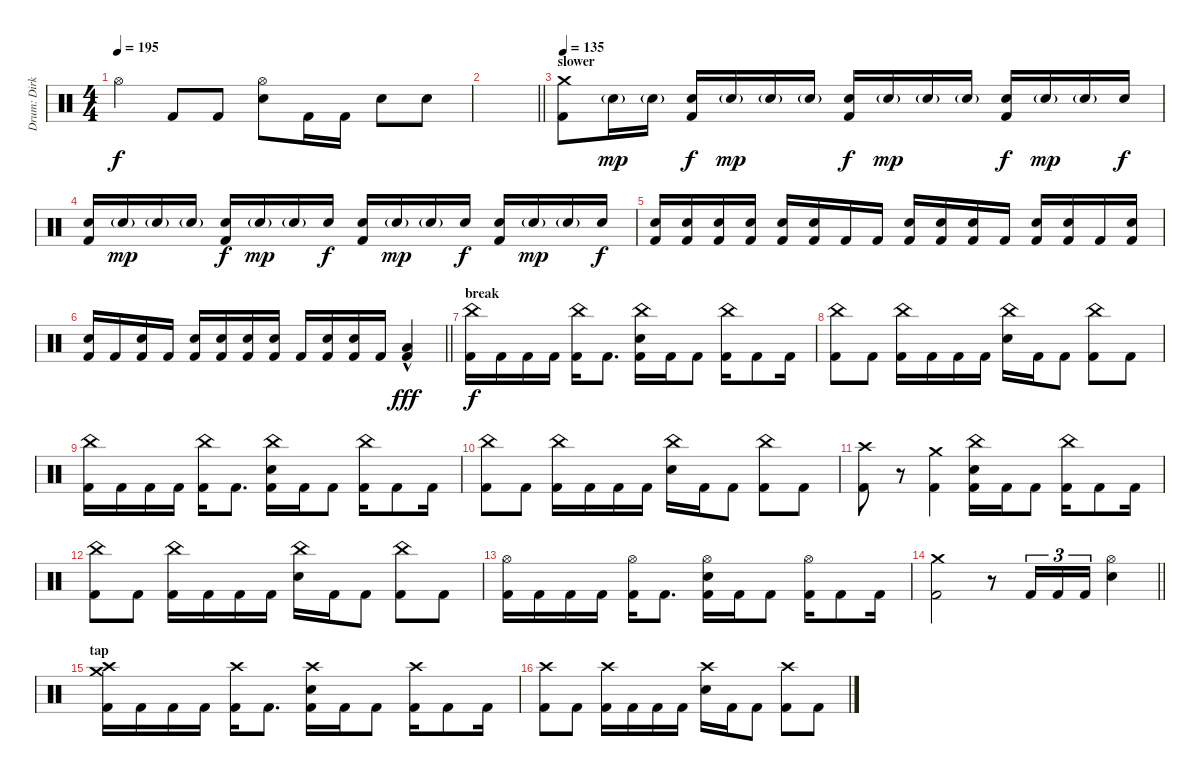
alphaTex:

\track ("Drum: Dirk" "Drum: Dirk") {instrument percussion}
\staff {score}
\articulation defaults
\ts (4 4)
\tempo 195
\clef neutral
\ks c "Hi-Hat (open)".4{dy f} "Kick (hit) 2".8 "Kick (hit) 2".8
("Hi-Hat (open)" "Electric Snare (hit)").8 "Kick (hit) 2".16 "Kick (hit) 2".16 "Electric Snare (hit)".8 "Electric Snare (hit)".8 |
\barLineRight lightlight
|
\section ("" "slower")
\tempo 135
("Crash medium (hit)" "Kick (hit) 2").8 "Electric Snare (hit)"{g}.16{dy mp} "Electric Snare (hit)"{g}.16 ("Electric Snare (hit)" "Kick (hit) 2").16{dy f} "Electric Snare (hit)"{g}.16{dy mp} "Electric Snare (hit)"{g}.16 "Electric Snare (hit)"{g}.16 ("Electric Snare (hit)" "Kick (hit) 2").16{dy f} "Electric Snare (hit)"{g}.16{dy mp} "Electric Snare (hit)"{g}.16 "Electric Snare (hit)"{g}.16 ("Electric Snare (hit)" "Kick (hit) 2").16{dy f} "Electric Snare (hit)"{g}.16{dy mp} "Electric Snare (hit)"{g}.16 "Electric Snare (hit)".16{dy f} |
("Electric Snare (hit)" "Kick (hit) 2").16 "Electric Snare (hit)"{g}.16{dy mp} "Electric Snare (hit)"{g}.16 "Electric Snare (hit)"{g}.16 ("Electric Snare (hit)" "Kick (hit) 2").16{dy f} "Electric Snare (hit)"{g}.16{dy mp} "Electric Snare (hit)"{g}.16 "Electric Snare (hit)".16{dy f} ("Electric Snare (hit)" "Kick (hit) 2").16 "Electric Snare (hit)"{g}.16{dy mp} "Electric Snare (hit)"{g}.16 "Electric Snare (hit)".16{dy f} ("Electric Snare (hit)" "Kick (hit) 2").16 "Electric Snare (hit)"{g}.16{dy mp} "Electric Snare (hit)"{g}.16 "Electric Snare (hit)".16{dy f} |
("Electric Snare (hit)" "Kick (hit) 2").16 ("Electric Snare (hit)" "Kick (hit) 2").16 ("Electric Snare (hit)" "Kick (hit) 2").16 ("Electric Snare (hit)" "Kick (hit) 2").16 ("Electric Snare (hit)" "Kick (hit) 2").16 ("Electric Snare (hit)" "Kick (hit) 2").16 "Kick (hit) 2".16 "Kick (hit) 2".16 ("Electric Snare (hit)" "Kick (hit) 2").16 ("Electric Snare (hit)" "Kick (hit) 2").16 ("Electric Snare (hit)" "Kick (hit) 2").16 "Kick (hit) 2".16 ("Electric Snare (hit)" "Kick (hit) 2").16 ("Electric Snare (hit)" "Kick (hit) 2").16 "Kick (hit) 2".16 ("Electric Snare (hit)" "Kick (hit) 2").16 |
\barLineRight lightlight
("Electric Snare (hit)" "Kick (hit) 2").16 "Kick (hit) 2".16 ("Electric Snare (hit)" "Kick (hit) 2").16 "Kick (hit) 2".16 ("Electric Snare (hit)" "Kick (hit) 2").16 ("Electric Snare (hit)" "Kick (hit) 2").16 ("Electric Snare (hit)" "Kick (hit) 2").16 ("Electric Snare (hit)" "Kick (hit) 2").16 "Kick (hit) 2".16 ("Electric Snare (hit)" "Kick (hit) 2").16 ("Electric Snare (hit)" "Kick (hit) 2").16 "Kick (hit) 2".16 ("Low Floor Tom (hit)"{hac} "Kick (hit) 2").4{dy fff} |
\section ("" "break")
("China (hit)" "Kick (hit) 2").16{dy f} "Kick (hit) 2".16 "Kick (hit) 2".16 "Kick (hit) 2".16 ("China (hit)" "Kick (hit) 2").16 "Kick (hit) 2".8{d} ("China (hit)" "Electric Snare (hit)" "Kick (hit) 2").16 "Kick (hit) 2".16 "Kick (hit) 2".8 ("China (hit)" "Kick (hit) 2").16 "Kick (hit) 2".8 "Kick (hit) 2".16 |
("China (hit)" "Kick (hit) 2").8 "Kick (hit) 2".8 ("China (hit)" "Kick (hit) 2").16 "Kick (hit) 2".16 "Kick (hit) 2".16 "Kick (hit) 2".16 ("China (hit)" "Electric Snare (hit)").16 "Kick (hit) 2".16 "Kick (hit) 2".8 ("China (hit)" "Kick (hit) 2").8 "Kick (hit) 2".8 |
("China (hit)" "Kick (hit) 2").16 "Kick (hit) 2".16 "Kick (hit) 2".16 "Kick (hit) 2".16 ("China (hit)" "Kick (hit) 2").16 "Kick (hit) 2".8{d} ("China (hit)" "Electric Snare (hit)" "Kick (hit) 2").16 "Kick (hit) 2".16 "Kick (hit) 2".8 ("China (hit)" "Kick (hit) 2").16 "Kick (hit) 2".8 "Kick (hit) 2".16 |
("China (hit)" "Kick (hit) 2").8 "Kick (hit) 2".8 ("China (hit)" "Kick (hit) 2").16 "Kick (hit) 2".16 "Kick (hit) 2".16 "Kick (hit) 2".16 ("China (hit)" "Electric Snare (hit)").16 "Kick (hit) 2".16 "Kick (hit) 2".8 ("China (hit)" "Kick (hit) 2").8 "Kick (hit) 2".8 |
("Crash high (hit)" "Kick (hit) 2").8 r.8{volume 0} ("Crash medium (hit)" "Kick (hit) 2").4{volume 13} ("China (hit)" "Electric Snare (hit)" "Kick (hit) 2").16 "Kick (hit) 2".16 "Kick (hit) 2".8 ("China (hit)" "Kick (hit) 2").16 "Kick (hit) 2".8 "Kick (hit) 2".16 |
("China (hit)" "Kick (hit) 2").8 "Kick (hit) 2".8 ("China (hit)" "Kick (hit) 2").16 "Kick (hit) 2".16 "Kick (hit) 2".16 "Kick (hit) 2".16 ("China (hit)" "Electric Snare (hit)").16 "Kick (hit) 2".16 "Kick (hit) 2".8 ("China (hit)" "Kick (hit) 2").8 "Kick (hit) 2".8 |
("Hi-Hat (open)" "Kick (hit) 2").16 "Kick (hit) 2".16 "Kick (hit) 2".16 "Kick (hit) 2".16 ("Hi-Hat (open)" "Kick (hit) 2").16 "Kick (hit) 2".8{d} ("Hi-Hat (open)" "Electric Snare (hit)" "Kick (hit) 2").16 "Kick (hit) 2".16 "Kick (hit) 2".8 ("Hi-Hat (open)" "Kick (hit) 2").16 "Kick (hit) 2".8 "Kick (hit) 2".16 |
\barLineRight lightlight
("Crash medium (hit)" "Kick (hit) 2").2 r.8 "Kick (hit) 2".16{tu (3 2)} "Kick (hit) 2".16{tu (3 2)} "Kick (hit) 2".16{tu (3 2)} ("Hi-Hat (open)" "Electric Snare (hit)").4 |
\section ("" "tap")
("Crash high (hit)" "Crash medium (hit)" "Kick (hit) 2").16 "Kick (hit) 2".16 "Kick (hit) 2".16 "Kick (hit) 2".16 ("Crash high (hit)" "Kick (hit) 2").16 "Kick (hit) 2".8{d} ("Crash high (hit)" "Electric Snare (hit)" "Kick (hit) 2").16 "Kick (hit) 2".16 "Kick (hit) 2".8 ("Crash high (hit)" "Kick (hit) 2").16 "Kick (hit) 2".8 "Kick (hit) 2".16 |
("Crash high (hit)" "Kick (hit) 2").8 "Kick (hit) 2".8 ("Crash high (hit)" "Kick (hit) 2").16 "Kick (hit) 2".16 "Kick (hit) 2".16 "Kick (hit) 2".16 ("Crash high (hit)" "Electric Snare (hit)").16 "Kick (hit) 2".16 "Kick (hit) 2".8 ("Crash high (hit)" "Kick (hit) 2").8 "Kick (hit) 2".8
